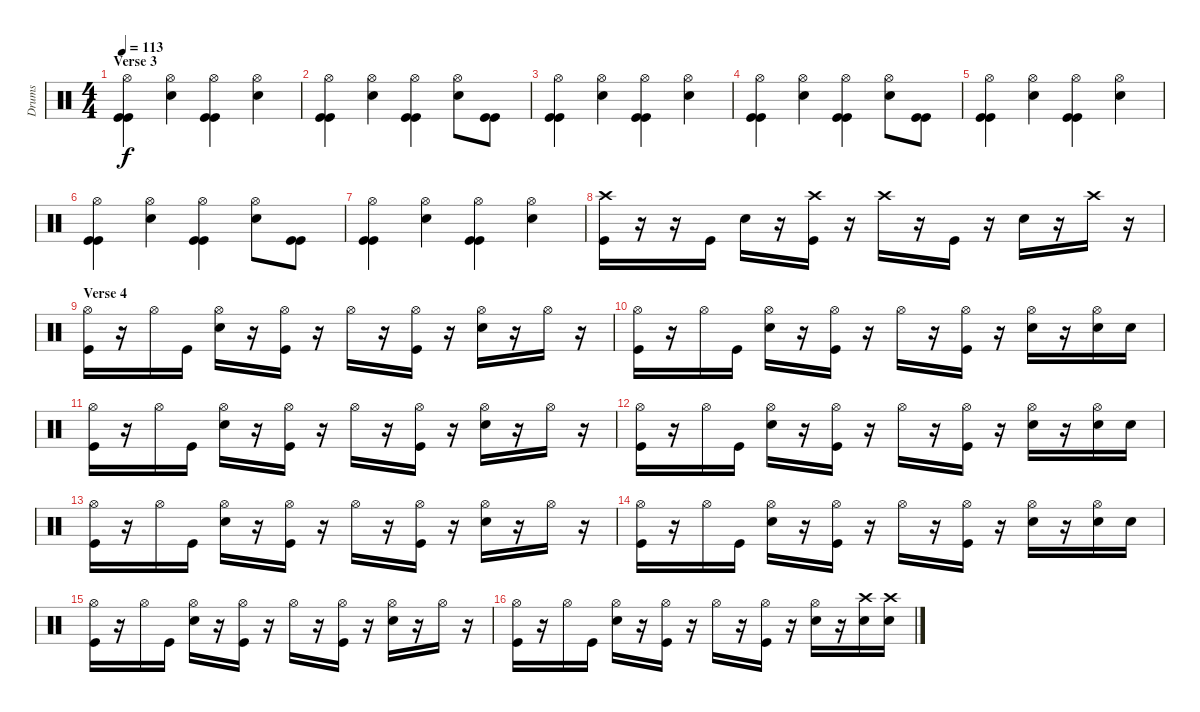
\track ("Drums" "Drums") {instrument percussion}
\staff {score}
\articulation defaults
\ts (4 4)
\section ("" "Verse 3")
\tempo 113
\clef neutral
\ks c
("Hi-Hat (open)" "Kick (hit)" "Kick (hit)").4{dy f} ("Hi-Hat (open)" "Snare (hit) 2").4 ("Hi-Hat (open)" "Kick (hit)" "Kick (hit)").4 ("Hi-Hat (open)" "Snare (hit) 2").4 |
("Hi-Hat (open)" "Kick (hit)" "Kick (hit)").4 ("Hi-Hat (open)" "Snare (hit) 2").4 ("Hi-Hat (open)" "Kick (hit)" "Kick (hit)").4 ("Hi-Hat (open)" "Snare (hit) 2").8 ("Kick (hit)" "Kick (hit)").8 |
("Hi-Hat (open)" "Kick (hit)" "Kick (hit)").4 ("Hi-Hat (open)" "Snare (hit) 2").4 ("Hi-Hat (open)" "Kick (hit)" "Kick (hit)").4 ("Hi-Hat (open)" "Snare (hit) 2").4 |
("Hi-Hat (open)" "Kick (hit)" "Kick (hit)").4 ("Hi-Hat (open)" "Snare (hit) 2").4 ("Hi-Hat (open)" "Kick (hit)" "Kick (hit)").4 ("Hi-Hat (open)" "Snare (hit) 2").8 ("Kick (hit)" "Kick (hit)").8 |
("Hi-Hat (open)" "Kick (hit)" "Kick (hit)").4 ("Hi-Hat (open)" "Snare (hit) 2").4 ("Hi-Hat (open)" "Kick (hit)" "Kick (hit)").4 ("Hi-Hat (open)" "Snare (hit) 2").4 |
("Hi-Hat (open)" "Kick (hit)" "Kick (hit)").4 ("Hi-Hat (open)" "Snare (hit) 2").4 ("Hi-Hat (open)" "Kick (hit)" "Kick (hit)").4 ("Hi-Hat (open)" "Snare (hit) 2").8 ("Kick (hit)" "Kick (hit)").8 |
("Hi-Hat (open)" "Kick (hit)" "Kick (hit)").4 ("Hi-Hat (open)" "Snare (hit) 2").4 ("Hi-Hat (open)" "Kick (hit)" "Kick (hit)").4 ("Hi-Hat (open)" "Snare (hit) 2").4 |
("Crash high (hit)" "Kick (hit)").16 r.16 r.16 "Kick (hit)".16 "Snare (hit) 2".16 r.16 ("Crash high (hit)" "Kick (hit)").16 r.16 "Crash high (hit)".16 r.16 "Kick (hit)".16 r.16 "Snare (hit) 2".16 r.16 "Crash high (hit)".16 r.16 |
\section ("" "Verse 4")
("Hi-Hat (open)" "Kick (hit)").16 r.16 "Hi-Hat (open)".16 "Kick (hit)".16 ("Hi-Hat (open)" "Snare (hit) 2").16 r.16 ("Hi-Hat (open)" "Kick (hit)").16 r.16 "Hi-Hat (open)".16 r.16 ("Hi-Hat (open)" "Kick (hit)").16 r.16 ("Hi-Hat (open)" "Snare (hit) 2").16 r.16 "Hi-Hat (open)".16 r.16 |
("Hi-Hat (open)" "Kick (hit)").16 r.16 "Hi-Hat (open)".16 "Kick (hit)".16 ("Hi-Hat (open)" "Snare (hit) 2").16 r.16 ("Hi-Hat (open)" "Kick (hit)").16 r.16 "Hi-Hat (open)".16 r.16 ("Hi-Hat (open)" "Kick (hit)").16 r.16 ("Hi-Hat (open)" "Snare (hit) 2").16 r.16 ("Hi-Hat (open)" "Snare (hit) 2").16 "Snare (hit) 2".16 |
("Hi-Hat (open)" "Kick (hit)").16 r.16 "Hi-Hat (open)".16 "Kick (hit)".16 ("Hi-Hat (open)" "Snare (hit) 2").16 r.16 ("Hi-Hat (open)" "Kick (hit)").16 r.16 "Hi-Hat (open)".16 r.16 ("Hi-Hat (open)" "Kick (hit)").16 r.16 ("Hi-Hat (open)" "Snare (hit) 2").16 r.16 "Hi-Hat (open)".16 r.16 |
("Hi-Hat (open)" "Kick (hit)").16 r.16 "Hi-Hat (open)".16 "Kick (hit)".16 ("Hi-Hat (open)" "Snare (hit) 2").16 r.16 ("Hi-Hat (open)" "Kick (hit)").16 r.16 "Hi-Hat (open)".16 r.16 ("Hi-Hat (open)" "Kick (hit)").16 r.16 ("Hi-Hat (open)" "Snare (hit) 2").16 r.16 ("Hi-Hat (open)" "Snare (hit) 2").16 "Snare (hit) 2".16 |
("Hi-Hat (open)" "Kick (hit)").16 r.16 "Hi-Hat (open)".16 "Kick (hit)".16 ("Hi-Hat (open)" "Snare (hit) 2").16 r.16 ("Hi-Hat (open)" "Kick (hit)").16 r.16 "Hi-Hat (open)".16 r.16 ("Hi-Hat (open)" "Kick (hit)").16 r.16 ("Hi-Hat (open)" "Snare (hit) 2").16 r.16 "Hi-Hat (open)".16 r.16 |
("Hi-Hat (open)" "Kick (hit)").16 r.16 "Hi-Hat (open)".16 "Kick (hit)".16 ("Hi-Hat (open)" "Snare (hit) 2").16 r.16 ("Hi-Hat (open)" "Kick (hit)").16 r.16 "Hi-Hat (open)".16 r.16 ("Hi-Hat (open)" "Kick (hit)").16 r.16 ("Hi-Hat (open)" "Snare (hit) 2").16 r.16 ("Hi-Hat (open)" "Snare (hit) 2").16 "Snare (hit) 2".16 |
("Hi-Hat (open)" "Kick (hit)").16 r.16 "Hi-Hat (open)".16 "Kick (hit)".16 ("Hi-Hat (open)" "Snare (hit) 2").16 r.16 ("Hi-Hat (open)" "Kick (hit)").16 r.16 "Hi-Hat (open)".16 r.16 ("Hi-Hat (open)" "Kick (hit)").16 r.16 ("Hi-Hat (open)" "Snare (hit) 2").16 r.16 "Hi-Hat (open)".16 r.16 |
("Hi-Hat (open)" "Kick (hit)").16 r.16 "Hi-Hat (open)".16 "Kick (hit)".16 ("Hi-Hat (open)" "Snare (hit) 2").16 r.16 ("Hi-Hat (open)" "Kick (hit)").16 r.16 "Hi-Hat (open)".16 r.16 ("Hi-Hat (open)" "Kick (hit)").16 r.16 ("Hi-Hat (open)" "Snare (hit) 2").16 r.16 ("Crash high (hit)" "Snare (hit) 2").16 ("Crash high (hit)" "Snare (hit) 2").16
